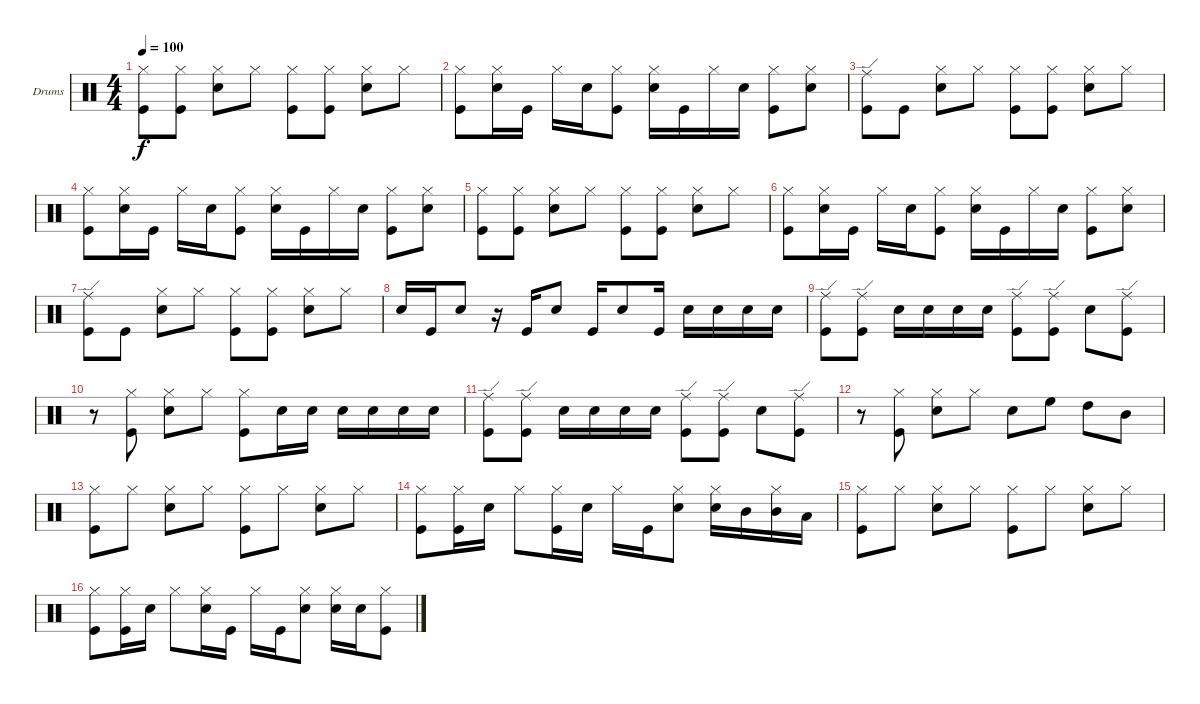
\defaultSystemsLayout 4
\bracketExtendMode groupsimilarinstruments
\firstSystemTrackNameOrientation horizontal
\otherSystemsTrackNameOrientation horizontal
\track ("Drums [Jason]" "Drums") {instrument percussion}
\staff {score}
\articulation defaults
\ts (4 4)
\tempo 100
\clef neutral
\ks c
("Hi-Hat (closed)" "Kick (hit)").8{dy f} ("Hi-Hat (closed)" "Kick (hit)").8 ("Hi-Hat (closed)" "Snare (hit) 2").8 "Hi-Hat (closed)".8 ("Hi-Hat (closed)" "Kick (hit)").8 ("Hi-Hat (closed)" "Kick (hit)").8 ("Hi-Hat (closed)" "Snare (hit) 2").8 "Hi-Hat (closed)".8 |
("Hi-Hat (closed)" "Kick (hit)").8 ("Hi-Hat (closed)" "Snare (hit) 2").16 "Kick (hit)".16 "Hi-Hat (closed)".16 "Snare (hit) 2".16 ("Hi-Hat (closed)" "Kick (hit)").8 ("Hi-Hat (closed)" "Snare (hit) 2").16 "Kick (hit)".16 "Hi-Hat (closed)".16 "Snare (hit) 2".16 ("Hi-Hat (closed)" "Kick (hit)").8 ("Hi-Hat (closed)" "Snare (hit) 2").8 |
("Ride (edge)" "Kick (hit)").8 "Kick (hit)".8 ("Hi-Hat (closed)" "Snare (hit) 2").8 "Hi-Hat (closed)".8 ("Hi-Hat (closed)" "Kick (hit)").8 ("Hi-Hat (closed)" "Kick (hit)").8 ("Hi-Hat (closed)" "Snare (hit) 2").8 "Hi-Hat (closed)".8 |
("Hi-Hat (closed)" "Kick (hit)").8 ("Hi-Hat (closed)" "Snare (hit) 2").16 "Kick (hit)".16 "Hi-Hat (closed)".16 "Snare (hit) 2".16 ("Hi-Hat (closed)" "Kick (hit)").8 ("Hi-Hat (closed)" "Snare (hit) 2").16 "Kick (hit)".16 "Hi-Hat (closed)".16 "Snare (hit) 2".16 ("Hi-Hat (closed)" "Kick (hit)").8 ("Hi-Hat (closed)" "Snare (hit) 2").8 |
("Hi-Hat (closed)" "Kick (hit)").8 ("Hi-Hat (closed)" "Kick (hit)").8 ("Hi-Hat (closed)" "Snare (hit) 2").8 "Hi-Hat (closed)".8 ("Hi-Hat (closed)" "Kick (hit)").8 ("Hi-Hat (closed)" "Kick (hit)").8 ("Hi-Hat (closed)" "Snare (hit) 2").8 "Hi-Hat (closed)".8 |
("Hi-Hat (closed)" "Kick (hit)").8 ("Hi-Hat (closed)" "Snare (hit) 2").16 "Kick (hit)".16 "Hi-Hat (closed)".16 "Snare (hit) 2".16 ("Hi-Hat (closed)" "Kick (hit)").8 ("Hi-Hat (closed)" "Snare (hit) 2").16 "Kick (hit)".16 "Hi-Hat (closed)".16 "Snare (hit) 2".16 ("Hi-Hat (closed)" "Kick (hit)").8 ("Hi-Hat (closed)" "Snare (hit) 2").8 |
("Ride (edge)" "Kick (hit)").8 "Kick (hit)".8 ("Hi-Hat (closed)" "Snare (hit) 2").8 "Hi-Hat (closed)".8 ("Hi-Hat (closed)" "Kick (hit)").8 ("Hi-Hat (closed)" "Kick (hit)").8 ("Hi-Hat (closed)" "Snare (hit) 2").8 "Hi-Hat (closed)".8 |
"Snare (hit) 2".16 "Kick (hit)".16 "Snare (hit) 2".8 r.16 "Kick (hit)".16 "Snare (hit) 2".8 "Kick (hit)".16 "Snare (hit) 2".8 "Kick (hit)".16 "Snare (hit) 2".16 "Snare (hit) 2".16 "Snare (hit) 2".16 "Snare (hit) 2".16 |
("Ride (edge)" "Kick (hit)").8 ("Ride (edge)" "Kick (hit)").8 "Snare (hit) 2".16 "Snare (hit) 2".16 "Snare (hit) 2".16 "Snare (hit) 2".16 ("Ride (edge)" "Kick (hit)").8 ("Ride (edge)" "Kick (hit)").8 "Snare (hit) 2".8 ("Ride (edge)" "Kick (hit)").8 |
r.8 ("Hi-Hat (closed)" "Kick (hit)").8 ("Hi-Hat (closed)" "Snare (hit) 2").8 "Hi-Hat (closed)".8 ("Hi-Hat (closed)" "Kick (hit)").8 "Snare (hit) 2".16 "Snare (hit) 2".16 "Snare (hit) 2".16 "Snare (hit) 2".16 "Snare (hit) 2".16 "Snare (hit) 2".16 |
("Ride (edge)" "Kick (hit)").8 ("Ride (edge)" "Kick (hit)").8 "Snare (hit) 2".16 "Snare (hit) 2".16 "Snare (hit) 2".16 "Snare (hit) 2".16 ("Ride (edge)" "Kick (hit)").8 ("Ride (edge)" "Kick (hit)").8 "Snare (hit) 2".8 ("Ride (edge)" "Kick (hit)").8 |
r.8 ("Hi-Hat (closed)" "Kick (hit)").8 ("Hi-Hat (closed)" "Snare (hit) 2").8 "Hi-Hat (closed)".8 "Snare (hit) 2".8 "High Floor Tom (hit)".8 "High Tom (hit)".8 "Mid Tom (hit)".8 |
("Hi-Hat (closed)" "Kick (hit)").8 "Hi-Hat (closed)".8 ("Hi-Hat (closed)" "Snare (hit) 2").8 "Hi-Hat (closed)".8 ("Hi-Hat (closed)" "Kick (hit)").8 "Hi-Hat (closed)".8 ("Hi-Hat (closed)" "Snare (hit) 2").8 "Hi-Hat (closed)".8 |
("Hi-Hat (closed)" "Kick (hit)").8 ("Hi-Hat (closed)" "Kick (hit)").16 "Snare (hit) 2".16 "Hi-Hat (closed)".8 ("Hi-Hat (closed)" "Kick (hit)").16 "Snare (hit) 2".16 "Hi-Hat (closed)".16 "Kick (hit)".16 ("Hi-Hat (closed)" "Snare (hit) 2").8 ("Hi-Hat (closed)" "Snare (hit) 2").16 "Mid Tom (hit)".16 ("Hi-Hat (closed)" "Mid Tom (hit)").16 "Low Tom (hit)".16 |
("Hi-Hat (closed)" "Kick (hit)").8 "Hi-Hat (closed)".8 ("Hi-Hat (closed)" "Snare (hit) 2").8 "Hi-Hat (closed)".8 ("Hi-Hat (closed)" "Kick (hit)").8 "Hi-Hat (closed)".8 ("Hi-Hat (closed)" "Snare (hit) 2").8 "Hi-Hat (closed)".8 |
("Hi-Hat (closed)" "Kick (hit)").8 ("Hi-Hat (closed)" "Kick (hit)").16 "Snare (hit) 2".16 "Hi-Hat (closed)".8 ("Hi-Hat (closed)" "Snare (hit) 2").16 "Kick (hit)".16 "Hi-Hat (closed)".16 "Kick (hit)".16 ("Hi-Hat (closed)" "Snare (hit) 2").8 ("Hi-Hat (closed)" "Snare (hit) 2").16 "Snare (hit) 2".16 ("Hi-Hat (closed)" "Kick (hit)").8
